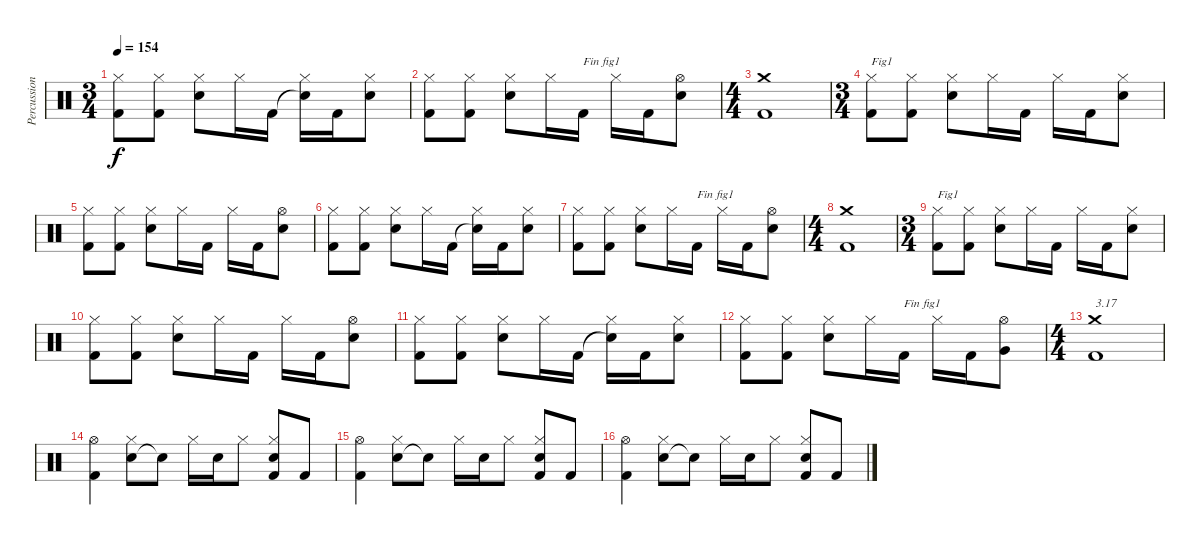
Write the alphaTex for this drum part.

\track ("Percussions" "Percussion") {instrument percussion}
\staff {score}
\articulation defaults
\ts (3 4)
\tempo 154
\clef neutral
\ks c
("Kick (hit) 2" "Hi-Hat (closed)").8{dy f} ("Kick (hit) 2" "Hi-Hat (closed)").8 ("Electric Snare (hit)" "Hi-Hat (closed)").8 "Hi-Hat (closed)".16 "Kick (hit) 2".16 ("Snare (hit)"{t} "Hi-Hat (closed)").16 "Kick (hit) 2".16 ("Electric Snare (hit)" "Hi-Hat (closed)").8 |
("Kick (hit) 2" "Hi-Hat (closed)").8 ("Kick (hit) 2" "Hi-Hat (closed)").8 ("Electric Snare (hit)" "Hi-Hat (closed)").8 "Hi-Hat (closed)".16 "Kick (hit) 2".16{txt "Fin fig1"} "Hi-Hat (closed)".16 "Kick (hit) 2".16 ("Electric Snare (hit)" "Hi-Hat (open)").8 |
\ts (4 4)
("Kick (hit) 2" "Crash medium (hit)").1 |
\ts (3 4)
("Kick (hit) 2" "Hi-Hat (closed)").8{txt "Fig1"} ("Kick (hit) 2" "Hi-Hat (closed)").8 ("Electric Snare (hit)" "Hi-Hat (closed)").8 "Hi-Hat (closed)".16 "Kick (hit) 2".16 "Hi-Hat (closed)".16 "Kick (hit) 2".16 ("Electric Snare (hit)" "Hi-Hat (closed)").8 |
("Kick (hit) 2" "Hi-Hat (closed)").8 ("Kick (hit) 2" "Hi-Hat (closed)").8 ("Electric Snare (hit)" "Hi-Hat (closed)").8 "Hi-Hat (closed)".16 "Kick (hit) 2".16 "Hi-Hat (closed)".16 "Kick (hit) 2".16 ("Electric Snare (hit)" "Hi-Hat (open)").8 |
("Kick (hit) 2" "Hi-Hat (closed)").8 ("Kick (hit) 2" "Hi-Hat (closed)").8 ("Electric Snare (hit)" "Hi-Hat (closed)").8 "Hi-Hat (closed)".16 "Kick (hit) 2".16 ("Snare (hit)"{t} "Hi-Hat (closed)").16 "Kick (hit) 2".16 ("Electric Snare (hit)" "Hi-Hat (closed)").8 |
("Kick (hit) 2" "Hi-Hat (closed)").8 ("Kick (hit) 2" "Hi-Hat (closed)").8 ("Electric Snare (hit)" "Hi-Hat (closed)").8 "Hi-Hat (closed)".16 "Kick (hit) 2".16{txt "Fin fig1"} "Hi-Hat (closed)".16 "Kick (hit) 2".16 ("Electric Snare (hit)" "Hi-Hat (open)").8 |
\ts (4 4)
("Kick (hit) 2" "Crash medium (hit)").1 |
\ts (3 4)
("Kick (hit) 2" "Hi-Hat (closed)").8{txt "Fig1"} ("Kick (hit) 2" "Hi-Hat (closed)").8 ("Electric Snare (hit)" "Hi-Hat (closed)").8 "Hi-Hat (closed)".16 "Kick (hit) 2".16 "Hi-Hat (closed)".16 "Kick (hit) 2".16 ("Electric Snare (hit)" "Hi-Hat (closed)").8 |
("Kick (hit) 2" "Hi-Hat (closed)").8 ("Kick (hit) 2" "Hi-Hat (closed)").8 ("Electric Snare (hit)" "Hi-Hat (closed)").8 "Hi-Hat (closed)".16 "Kick (hit) 2".16 "Hi-Hat (closed)".16 "Kick (hit) 2".16 ("Electric Snare (hit)" "Hi-Hat (open)").8 |
("Kick (hit) 2" "Hi-Hat (closed)").8 ("Kick (hit) 2" "Hi-Hat (closed)").8 ("Electric Snare (hit)" "Hi-Hat (closed)").8 "Hi-Hat (closed)".16 "Kick (hit) 2".16 ("Snare (hit)"{t} "Hi-Hat (closed)").16 "Kick (hit) 2".16 ("Electric Snare (hit)" "Hi-Hat (closed)").8 |
("Kick (hit) 2" "Hi-Hat (closed)").8 ("Kick (hit) 2" "Hi-Hat (closed)").8 ("Electric Snare (hit)" "Hi-Hat (closed)").8 "Hi-Hat (closed)".16 "Kick (hit) 2".16{txt "Fin fig1"} "Hi-Hat (closed)".16 "Kick (hit) 2".16 ("Very Low Tom (hit)" "Hi-Hat (open)").8 |
\ts (4 4)
("Kick (hit) 2" "Crash medium (hit)").1{txt "3.17"} |
("Kick (hit) 2" "Hi-Hat (open)").4 ("Electric Snare (hit)" "Hi-Hat (closed)").8 "Snare (hit)"{t}.8 "Hi-Hat (closed)".16 "Electric Snare (hit)".16 "Hi-Hat (closed)".8 ("Kick (hit) 2" "Electric Snare (hit)" "Hi-Hat (closed)").8 "Kick (hit) 2".8 |
("Kick (hit) 2" "Hi-Hat (open)").4 ("Electric Snare (hit)" "Hi-Hat (closed)").8 "Snare (hit)"{t}.8 "Hi-Hat (closed)".16 "Electric Snare (hit)".16 "Hi-Hat (closed)".8 ("Kick (hit) 2" "Electric Snare (hit)" "Hi-Hat (closed)").8 "Kick (hit) 2".8 |
("Kick (hit) 2" "Hi-Hat (open)").4 ("Electric Snare (hit)" "Hi-Hat (closed)").8 "Snare (hit)"{t}.8 "Hi-Hat (closed)".16 "Electric Snare (hit)".16 "Hi-Hat (closed)".8 ("Kick (hit) 2" "Electric Snare (hit)" "Hi-Hat (closed)").8 "Kick (hit) 2".8
